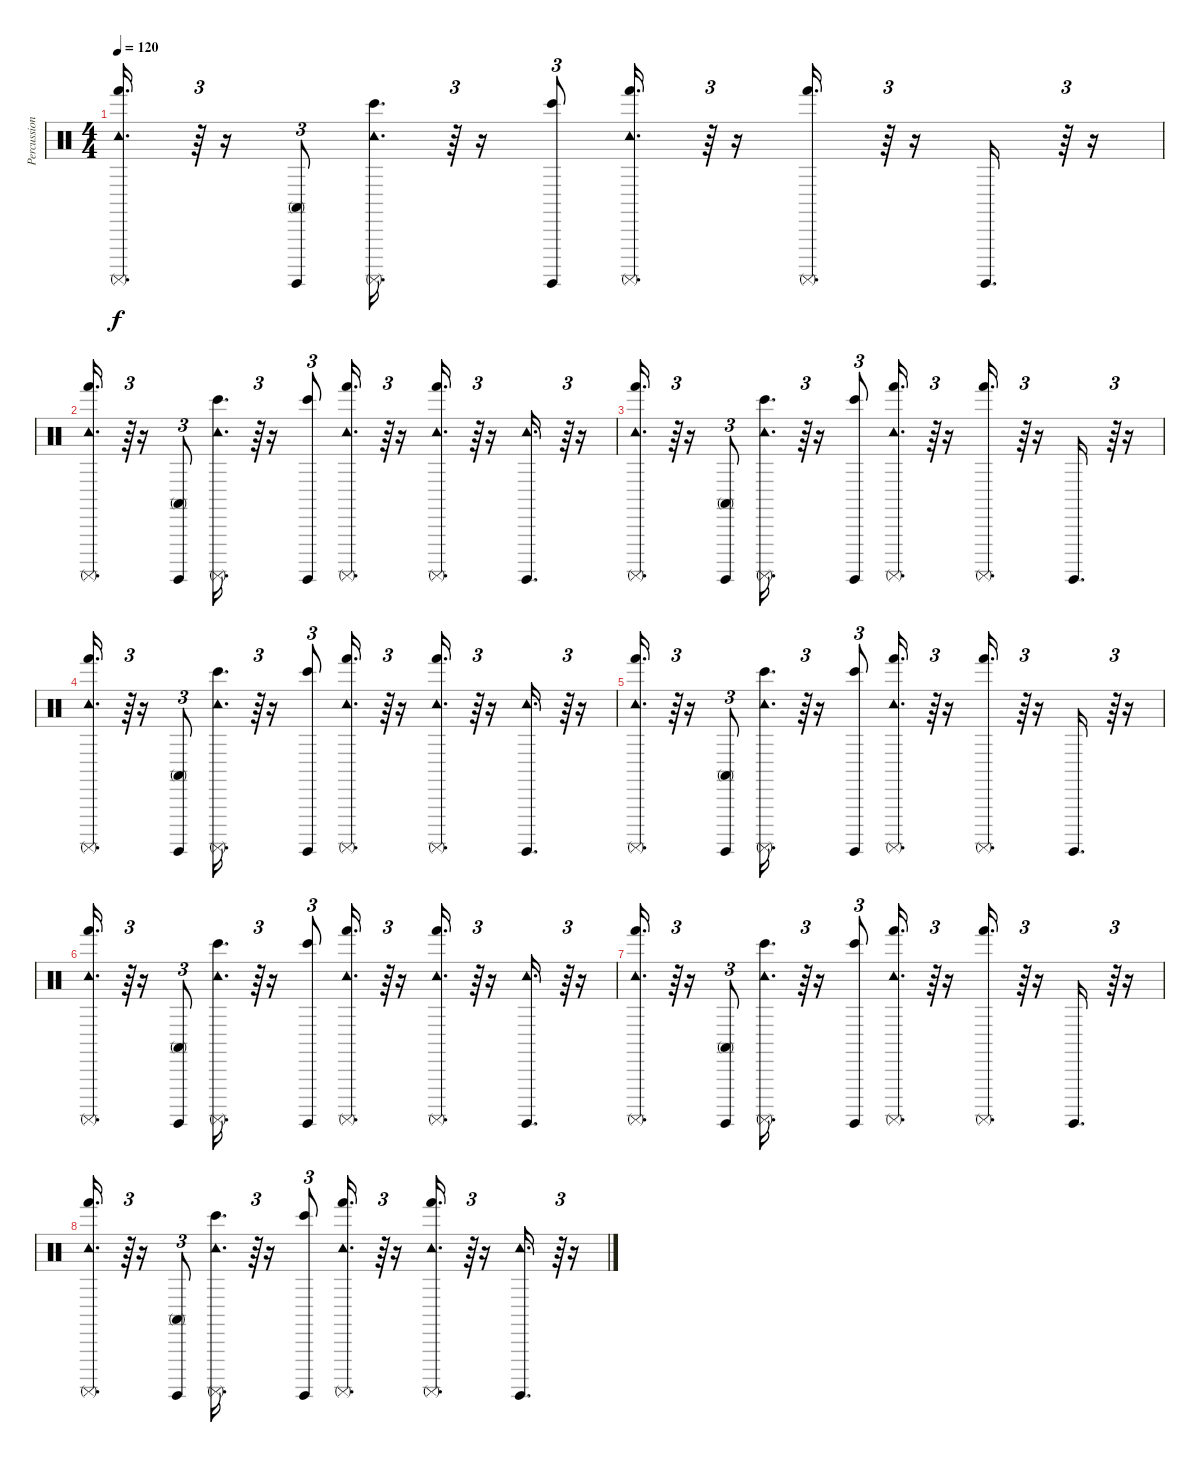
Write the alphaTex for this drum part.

\track ("Percussion" "Percussion") {instrument percussion}
\staff {score}
\articulation defaults
\ts (4 4)
\tempo 120
\clef neutral
\ks c
("Tambourine (hit)" "Hand (hit)" "Surdo (mute)").16{d dy f} r.64{tu (3 2)} r.16 ("Conga high (mute)" "Surdo (hit)").8{tu (3 2)} ("Tambourine (hit)" "Bongo High (hit)" "Surdo (mute)").16{d} r.64{tu (3 2)} r.16 ("Bongo High (hit)" "Surdo (hit)").8{tu (3 2)} ("Tambourine (hit)" "Hand (hit)" "Surdo (mute)").16{d} r.64{tu (3 2)} r.16 ("Hand (hit)" "Surdo (mute)").16{d} r.64{tu (3 2)} r.16 "Surdo (hit)".16{d} r.64{tu (3 2)} r.16 |
("Tambourine (hit)" "Hand (hit)" "Surdo (mute)").16{d} r.64{tu (3 2)} r.16 ("Conga high (mute)" "Surdo (hit)").8{tu (3 2)} ("Tambourine (hit)" "Bongo High (hit)" "Surdo (mute)").16{d} r.64{tu (3 2)} r.16 ("Bongo High (hit)" "Surdo (hit)").8{tu (3 2)} ("Tambourine (hit)" "Hand (hit)" "Surdo (mute)").16{d} r.64{tu (3 2)} r.16 ("Tambourine (hit)" "Hand (hit)" "Surdo (mute)").16{d} r.64{tu (3 2)} r.16 ("Tambourine (hit)" "Surdo (hit)").16{d} r.64{tu (3 2)} r.16 |
("Tambourine (hit)" "Hand (hit)" "Surdo (mute)").16{d} r.64{tu (3 2)} r.16 ("Conga high (mute)" "Surdo (hit)").8{tu (3 2)} ("Tambourine (hit)" "Bongo High (hit)" "Surdo (mute)").16{d} r.64{tu (3 2)} r.16 ("Bongo High (hit)" "Surdo (hit)").8{tu (3 2)} ("Tambourine (hit)" "Hand (hit)" "Surdo (mute)").16{d} r.64{tu (3 2)} r.16 ("Hand (hit)" "Surdo (mute)").16{d} r.64{tu (3 2)} r.16 "Surdo (hit)".16{d} r.64{tu (3 2)} r.16 |
("Tambourine (hit)" "Hand (hit)" "Surdo (mute)").16{d} r.64{tu (3 2)} r.16 ("Conga high (mute)" "Surdo (hit)").8{tu (3 2)} ("Tambourine (hit)" "Bongo High (hit)" "Surdo (mute)").16{d} r.64{tu (3 2)} r.16 ("Bongo High (hit)" "Surdo (hit)").8{tu (3 2)} ("Tambourine (hit)" "Hand (hit)" "Surdo (mute)").16{d} r.64{tu (3 2)} r.16 ("Tambourine (hit)" "Hand (hit)" "Surdo (mute)").16{d} r.64{tu (3 2)} r.16 ("Tambourine (hit)" "Surdo (hit)").16{d} r.64{tu (3 2)} r.16 |
("Tambourine (hit)" "Hand (hit)" "Surdo (mute)").16{d} r.64{tu (3 2)} r.16 ("Conga high (mute)" "Surdo (hit)").8{tu (3 2)} ("Tambourine (hit)" "Bongo High (hit)" "Surdo (mute)").16{d} r.64{tu (3 2)} r.16 ("Bongo High (hit)" "Surdo (hit)").8{tu (3 2)} ("Tambourine (hit)" "Hand (hit)" "Surdo (mute)").16{d} r.64{tu (3 2)} r.16 ("Hand (hit)" "Surdo (mute)").16{d} r.64{tu (3 2)} r.16 "Surdo (hit)".16{d} r.64{tu (3 2)} r.16 |
("Tambourine (hit)" "Hand (hit)" "Surdo (mute)").16{d} r.64{tu (3 2)} r.16 ("Conga high (mute)" "Surdo (hit)").8{tu (3 2)} ("Tambourine (hit)" "Bongo High (hit)" "Surdo (mute)").16{d} r.64{tu (3 2)} r.16 ("Bongo High (hit)" "Surdo (hit)").8{tu (3 2)} ("Tambourine (hit)" "Hand (hit)" "Surdo (mute)").16{d} r.64{tu (3 2)} r.16 ("Tambourine (hit)" "Hand (hit)" "Surdo (mute)").16{d} r.64{tu (3 2)} r.16 ("Tambourine (hit)" "Surdo (hit)").16{d} r.64{tu (3 2)} r.16 |
("Tambourine (hit)" "Hand (hit)" "Surdo (mute)").16{d} r.64{tu (3 2)} r.16 ("Conga high (mute)" "Surdo (hit)").8{tu (3 2)} ("Tambourine (hit)" "Bongo High (hit)" "Surdo (mute)").16{d} r.64{tu (3 2)} r.16 ("Bongo High (hit)" "Surdo (hit)").8{tu (3 2)} ("Tambourine (hit)" "Hand (hit)" "Surdo (mute)").16{d} r.64{tu (3 2)} r.16 ("Hand (hit)" "Surdo (mute)").16{d} r.64{tu (3 2)} r.16 "Surdo (hit)".16{d} r.64{tu (3 2)} r.16 |
("Tambourine (hit)" "Hand (hit)" "Surdo (mute)").16{d} r.64{tu (3 2)} r.16 ("Conga high (mute)" "Surdo (hit)").8{tu (3 2)} ("Tambourine (hit)" "Bongo High (hit)" "Surdo (mute)").16{d} r.64{tu (3 2)} r.16 ("Bongo High (hit)" "Surdo (hit)").8{tu (3 2)} ("Tambourine (hit)" "Hand (hit)" "Surdo (mute)").16{d} r.64{tu (3 2)} r.16 ("Tambourine (hit)" "Hand (hit)" "Surdo (mute)").16{d} r.64{tu (3 2)} r.16 ("Tambourine (hit)" "Surdo (hit)").16{d} r.64{tu (3 2)} r.16
